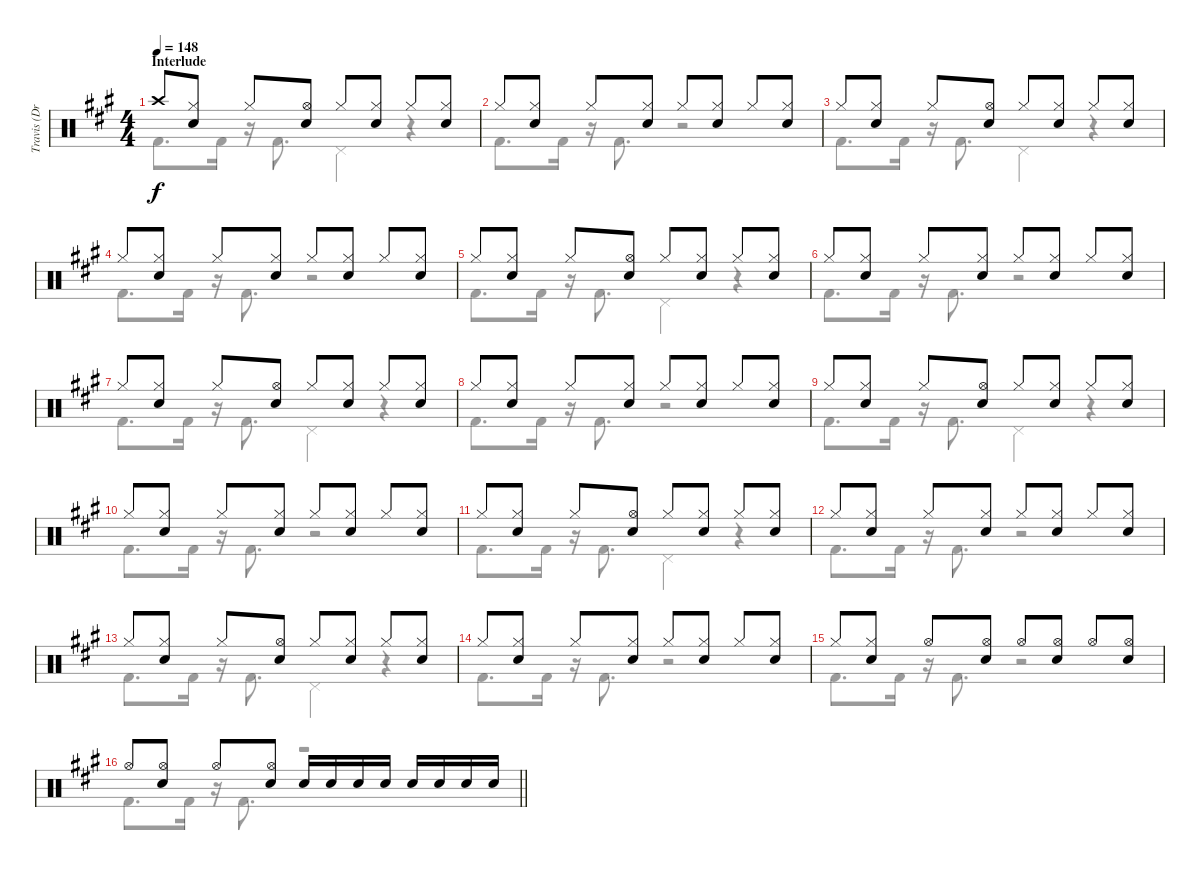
\track ("Travis (Drums)" "Travis (Dr") {instrument percussion}
\staff {score}
\articulation defaults
\voice
\ts (4 4)
\section ("" "Interlude")
\tempo 148
\clef neutral
\ks a "Crash high (hit)".8{dy f}
("Electric Snare (hit)" "Hi-Hat (closed)").8 "Hi-Hat (closed)".8 ("Electric Snare (hit)" "Hi-Hat (open)").8 "Hi-Hat (closed)".8 ("Electric Snare (hit)" "Hi-Hat (closed)").8 "Hi-Hat (closed)".8 ("Electric Snare (hit)" "Hi-Hat (closed)").8 |
"Hi-Hat (closed)".8 ("Electric Snare (hit)" "Hi-Hat (closed)").8 "Hi-Hat (closed)".8 ("Electric Snare (hit)" "Hi-Hat (closed)").8 "Hi-Hat (closed)".8 ("Electric Snare (hit)" "Hi-Hat (closed)").8 "Hi-Hat (closed)".8 ("Electric Snare (hit)" "Hi-Hat (closed)").8 |
"Hi-Hat (closed)".8 ("Electric Snare (hit)" "Hi-Hat (closed)").8 "Hi-Hat (closed)".8 ("Electric Snare (hit)" "Hi-Hat (open)").8 "Hi-Hat (closed)".8 ("Electric Snare (hit)" "Hi-Hat (closed)").8 "Hi-Hat (closed)".8 ("Electric Snare (hit)" "Hi-Hat (closed)").8 |
"Hi-Hat (closed)".8 ("Electric Snare (hit)" "Hi-Hat (closed)").8 "Hi-Hat (closed)".8 ("Electric Snare (hit)" "Hi-Hat (closed)").8 "Hi-Hat (closed)".8 ("Electric Snare (hit)" "Hi-Hat (closed)").8 "Hi-Hat (closed)".8 ("Electric Snare (hit)" "Hi-Hat (closed)").8 |
"Hi-Hat (closed)".8 ("Electric Snare (hit)" "Hi-Hat (closed)").8 "Hi-Hat (closed)".8 ("Electric Snare (hit)" "Hi-Hat (open)").8 "Hi-Hat (closed)".8 ("Electric Snare (hit)" "Hi-Hat (closed)").8 "Hi-Hat (closed)".8 ("Electric Snare (hit)" "Hi-Hat (closed)").8 |
"Hi-Hat (closed)".8 ("Electric Snare (hit)" "Hi-Hat (closed)").8 "Hi-Hat (closed)".8 ("Electric Snare (hit)" "Hi-Hat (closed)").8 "Hi-Hat (closed)".8 ("Electric Snare (hit)" "Hi-Hat (closed)").8 "Hi-Hat (closed)".8 ("Electric Snare (hit)" "Hi-Hat (closed)").8 |
"Hi-Hat (closed)".8 ("Electric Snare (hit)" "Hi-Hat (closed)").8 "Hi-Hat (closed)".8 ("Electric Snare (hit)" "Hi-Hat (open)").8 "Hi-Hat (closed)".8 ("Electric Snare (hit)" "Hi-Hat (closed)").8 "Hi-Hat (closed)".8 ("Electric Snare (hit)" "Hi-Hat (closed)").8 |
"Hi-Hat (closed)".8 ("Electric Snare (hit)" "Hi-Hat (closed)").8 "Hi-Hat (closed)".8 ("Electric Snare (hit)" "Hi-Hat (closed)").8 "Hi-Hat (closed)".8 ("Electric Snare (hit)" "Hi-Hat (closed)").8 "Hi-Hat (closed)".8 ("Electric Snare (hit)" "Hi-Hat (closed)").8 |
"Hi-Hat (closed)".8 ("Electric Snare (hit)" "Hi-Hat (closed)").8 "Hi-Hat (closed)".8 ("Electric Snare (hit)" "Hi-Hat (open)").8 "Hi-Hat (closed)".8 ("Electric Snare (hit)" "Hi-Hat (closed)").8 "Hi-Hat (closed)".8 ("Electric Snare (hit)" "Hi-Hat (closed)").8 |
"Hi-Hat (closed)".8 ("Electric Snare (hit)" "Hi-Hat (closed)").8 "Hi-Hat (closed)".8 ("Electric Snare (hit)" "Hi-Hat (closed)").8 "Hi-Hat (closed)".8 ("Electric Snare (hit)" "Hi-Hat (closed)").8 "Hi-Hat (closed)".8 ("Electric Snare (hit)" "Hi-Hat (closed)").8 |
"Hi-Hat (closed)".8 ("Electric Snare (hit)" "Hi-Hat (closed)").8 "Hi-Hat (closed)".8 ("Electric Snare (hit)" "Hi-Hat (open)").8 "Hi-Hat (closed)".8 ("Electric Snare (hit)" "Hi-Hat (closed)").8 "Hi-Hat (closed)".8 ("Electric Snare (hit)" "Hi-Hat (closed)").8 |
"Hi-Hat (closed)".8 ("Electric Snare (hit)" "Hi-Hat (closed)").8 "Hi-Hat (closed)".8 ("Electric Snare (hit)" "Hi-Hat (closed)").8 "Hi-Hat (closed)".8 ("Electric Snare (hit)" "Hi-Hat (closed)").8 "Hi-Hat (closed)".8 ("Electric Snare (hit)" "Hi-Hat (closed)").8 |
"Hi-Hat (closed)".8 ("Electric Snare (hit)" "Hi-Hat (closed)").8 "Hi-Hat (closed)".8 ("Electric Snare (hit)" "Hi-Hat (open)").8 "Hi-Hat (closed)".8 ("Electric Snare (hit)" "Hi-Hat (closed)").8 "Hi-Hat (closed)".8 ("Electric Snare (hit)" "Hi-Hat (closed)").8 |
"Hi-Hat (closed)".8 ("Electric Snare (hit)" "Hi-Hat (closed)").8 "Hi-Hat (closed)".8 ("Electric Snare (hit)" "Hi-Hat (closed)").8 "Hi-Hat (closed)".8 ("Electric Snare (hit)" "Hi-Hat (closed)").8 "Hi-Hat (closed)".8 ("Electric Snare (hit)" "Hi-Hat (closed)").8 |
"Hi-Hat (closed)".8 ("Electric Snare (hit)" "Hi-Hat (closed)").8 "Hi-Hat (open)".8 ("Electric Snare (hit)" "Hi-Hat (open)").8 "Hi-Hat (open)".8 ("Electric Snare (hit)" "Hi-Hat (open)").8 "Hi-Hat (open)".8 ("Electric Snare (hit)" "Hi-Hat (open)").8 |
\barLineRight lightlight "Hi-Hat (open)".8
("Electric Snare (hit)" "Hi-Hat (open)").8 "Hi-Hat (open)".8 ("Electric Snare (hit)" "Hi-Hat (open)").8 "Electric Snare (hit)".16 "Electric Snare (hit)".16 "Electric Snare (hit)".16 "Electric Snare (hit)".16 "Electric Snare (hit)".16 "Electric Snare (hit)".16 "Electric Snare (hit)".16 "Electric Snare (hit)".16
\voice
\clef neutral
\ottava regular
\simile none
\ks a "Kick (hit) 2".8{d dy f} "Kick (hit) 2".16
r.16 "Kick (hit) 2".8{d} "Pedal Hi-Hat (hit)".4 r.4 |
"Kick (hit) 2".8{d} "Kick (hit) 2".16 r.16 "Kick (hit) 2".8{d} r.2 |
"Kick (hit) 2".8{d} "Kick (hit) 2".16 r.16 "Kick (hit) 2".8{d} "Pedal Hi-Hat (hit)".4 r.4 |
"Kick (hit) 2".8{d} "Kick (hit) 2".16 r.16 "Kick (hit) 2".8{d} r.2 |
"Kick (hit) 2".8{d} "Kick (hit) 2".16 r.16 "Kick (hit) 2".8{d} "Pedal Hi-Hat (hit)".4 r.4 |
"Kick (hit) 2".8{d} "Kick (hit) 2".16 r.16 "Kick (hit) 2".8{d} r.2 |
"Kick (hit) 2".8{d} "Kick (hit) 2".16 r.16 "Kick (hit) 2".8{d} "Pedal Hi-Hat (hit)".4 r.4 |
"Kick (hit) 2".8{d} "Kick (hit) 2".16 r.16 "Kick (hit) 2".8{d} r.2 |
"Kick (hit) 2".8{d} "Kick (hit) 2".16 r.16 "Kick (hit) 2".8{d} "Pedal Hi-Hat (hit)".4 r.4 |
"Kick (hit) 2".8{d} "Kick (hit) 2".16 r.16 "Kick (hit) 2".8{d} r.2 |
"Kick (hit) 2".8{d} "Kick (hit) 2".16 r.16 "Kick (hit) 2".8{d} "Pedal Hi-Hat (hit)".4 r.4 |
"Kick (hit) 2".8{d} "Kick (hit) 2".16 r.16 "Kick (hit) 2".8{d} r.2 |
"Kick (hit) 2".8{d} "Kick (hit) 2".16 r.16 "Kick (hit) 2".8{d} "Pedal Hi-Hat (hit)".4 r.4 |
"Kick (hit) 2".8{d} "Kick (hit) 2".16 r.16 "Kick (hit) 2".8{d} r.2 |
"Kick (hit) 2".8{d} "Kick (hit) 2".16 r.16 "Kick (hit) 2".8{d} r.2 |
\barLineRight lightlight "Kick (hit) 2".8{d} "Kick (hit) 2".16
r.16 "Kick (hit) 2".8{d} r.2
